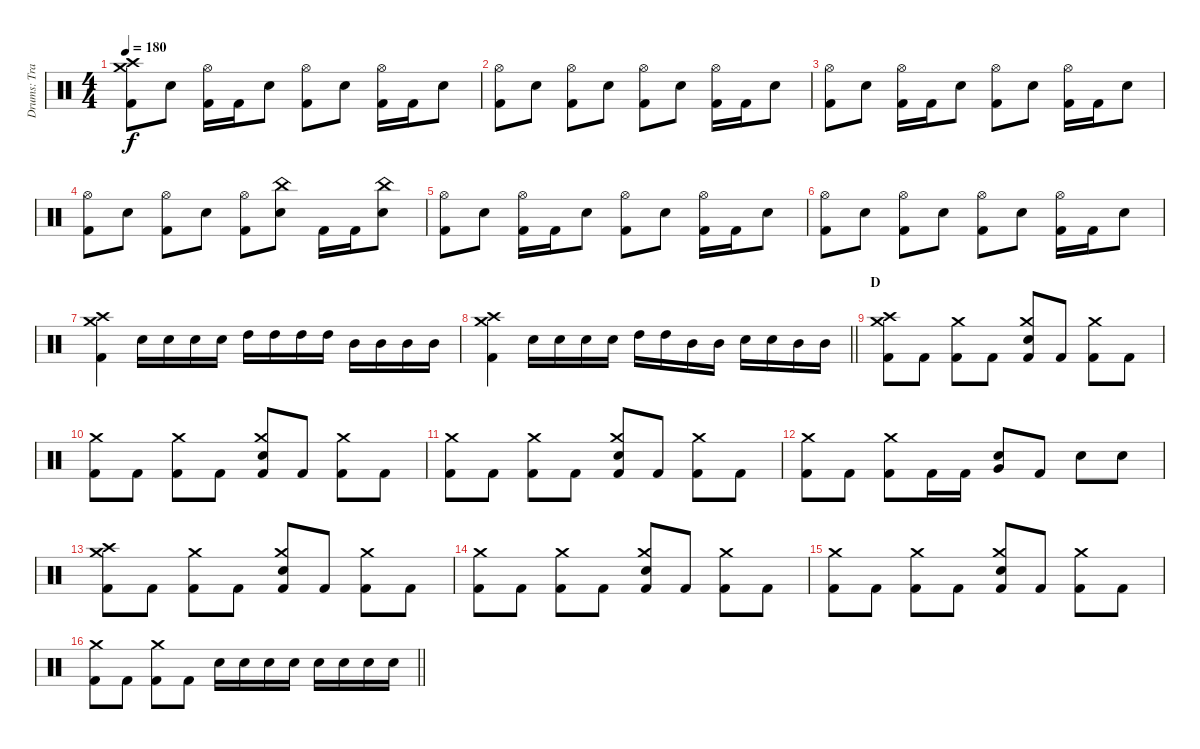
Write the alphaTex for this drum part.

\track ("Drums: Travis Clarke" "Drums: Tra") {instrument percussion}
\staff {score}
\articulation defaults
\ts (4 4)
\tempo 180
\clef neutral
\ks c
("Kick (hit) 2" "Crash high (hit)" "Crash medium (hit)").8{dy f} "Snare (hit) 2".8 ("Kick (hit) 2" "Hi-Hat (open)").16 "Kick (hit) 2".16 "Snare (hit) 2".8 ("Kick (hit) 2" "Hi-Hat (open)").8 "Snare (hit) 2".8 ("Kick (hit) 2" "Hi-Hat (open)").16 "Kick (hit) 2".16 "Snare (hit) 2".8 |
("Kick (hit) 2" "Hi-Hat (open)").8 "Snare (hit) 2".8 ("Kick (hit) 2" "Hi-Hat (open)").8 "Snare (hit) 2".8 ("Kick (hit) 2" "Hi-Hat (open)").8 "Snare (hit) 2".8 ("Kick (hit) 2" "Hi-Hat (open)").16 "Kick (hit) 2".16 "Snare (hit) 2".8 |
("Kick (hit) 2" "Hi-Hat (open)").8 "Snare (hit) 2".8 ("Kick (hit) 2" "Hi-Hat (open)").16 "Kick (hit) 2".16 "Snare (hit) 2".8 ("Kick (hit) 2" "Hi-Hat (open)").8 "Snare (hit) 2".8 ("Kick (hit) 2" "Hi-Hat (open)").16 "Kick (hit) 2".16 "Snare (hit) 2".8 |
("Kick (hit) 2" "Hi-Hat (open)").8 "Snare (hit) 2".8 ("Kick (hit) 2" "Hi-Hat (open)").8 "Snare (hit) 2".8 ("Kick (hit) 2" "Hi-Hat (open)").8 ("Snare (hit) 2" "China (hit)").8 "Kick (hit) 2".16 "Kick (hit) 2".16 ("Snare (hit) 2" "China (hit)").8 |
("Kick (hit) 2" "Hi-Hat (open)").8 "Snare (hit) 2".8 ("Kick (hit) 2" "Hi-Hat (open)").16 "Kick (hit) 2".16 "Snare (hit) 2".8 ("Kick (hit) 2" "Hi-Hat (open)").8 "Snare (hit) 2".8 ("Kick (hit) 2" "Hi-Hat (open)").16 "Kick (hit) 2".16 "Snare (hit) 2".8 |
("Kick (hit) 2" "Hi-Hat (open)").8 "Snare (hit) 2".8 ("Kick (hit) 2" "Hi-Hat (open)").8 "Snare (hit) 2".8 ("Kick (hit) 2" "Hi-Hat (open)").8 "Snare (hit) 2".8 ("Kick (hit) 2" "Hi-Hat (open)").16 "Kick (hit) 2".16 "Snare (hit) 2".8 |
("Kick (hit) 2" "Crash high (hit)" "Crash medium (hit)").4 "Snare (hit) 2".16 "Snare (hit) 2".16 "Snare (hit) 2".16 "Snare (hit) 2".16 "High Tom (hit)".16 "High Tom (hit)".16 "High Tom (hit)".16 "High Tom (hit)".16 "Mid Tom (hit)".16 "Mid Tom (hit)".16 "Mid Tom (hit)".16 "Mid Tom (hit)".16 |
\barLineRight lightlight
("Kick (hit) 2" "Crash high (hit)" "Crash medium (hit)").4 "Snare (hit) 2".16 "Snare (hit) 2".16 "Snare (hit) 2".16 "Snare (hit) 2".16 "High Tom (hit)".16 "High Tom (hit)".16 "Mid Tom (hit)".16 "Mid Tom (hit)".16 "Snare (hit) 2".16 "Snare (hit) 2".16 "Mid Tom (hit)".16 "Mid Tom (hit)".16 |
\section ("" "D")
("Kick (hit) 2" "Crash high (hit)" "Crash medium (hit)").8 "Kick (hit) 2".8 ("Kick (hit) 2" "Crash medium (hit)").8 "Kick (hit) 2".8 ("Kick (hit) 2" "Snare (hit) 2" "Crash medium (hit)").8 "Kick (hit) 2".8 ("Kick (hit) 2" "Crash medium (hit)").8 "Kick (hit) 2".8 |
("Kick (hit) 2" "Crash medium (hit)").8 "Kick (hit) 2".8 ("Kick (hit) 2" "Crash medium (hit)").8 "Kick (hit) 2".8 ("Kick (hit) 2" "Snare (hit) 2" "Crash medium (hit)").8 "Kick (hit) 2".8 ("Kick (hit) 2" "Crash medium (hit)").8 "Kick (hit) 2".8 |
("Kick (hit) 2" "Crash medium (hit)").8 "Kick (hit) 2".8 ("Kick (hit) 2" "Crash medium (hit)").8 "Kick (hit) 2".8 ("Kick (hit) 2" "Snare (hit) 2" "Crash medium (hit)").8 "Kick (hit) 2".8 ("Kick (hit) 2" "Crash medium (hit)").8 "Kick (hit) 2".8 |
("Kick (hit) 2" "Crash medium (hit)").8 "Kick (hit) 2".8 ("Kick (hit) 2" "Crash medium (hit)").8 "Kick (hit) 2".16 "Kick (hit) 2".16 ("Snare (hit) 2" "Very Low Tom (hit)").8 "Kick (hit) 2".8 "Snare (hit) 2".8 "Snare (hit) 2".8 |
("Kick (hit) 2" "Crash high (hit)" "Crash medium (hit)").8 "Kick (hit) 2".8 ("Kick (hit) 2" "Crash medium (hit)").8 "Kick (hit) 2".8 ("Kick (hit) 2" "Snare (hit) 2" "Crash medium (hit)").8 "Kick (hit) 2".8 ("Kick (hit) 2" "Crash medium (hit)").8 "Kick (hit) 2".8 |
("Kick (hit) 2" "Crash medium (hit)").8 "Kick (hit) 2".8 ("Kick (hit) 2" "Crash medium (hit)").8 "Kick (hit) 2".8 ("Kick (hit) 2" "Snare (hit) 2" "Crash medium (hit)").8 "Kick (hit) 2".8 ("Kick (hit) 2" "Crash medium (hit)").8 "Kick (hit) 2".8 |
("Kick (hit) 2" "Crash medium (hit)").8 "Kick (hit) 2".8 ("Kick (hit) 2" "Crash medium (hit)").8 "Kick (hit) 2".8 ("Kick (hit) 2" "Snare (hit) 2" "Crash medium (hit)").8 "Kick (hit) 2".8 ("Kick (hit) 2" "Crash medium (hit)").8 "Kick (hit) 2".8 |
\barLineRight lightlight
("Kick (hit) 2" "Crash medium (hit)").8 "Kick (hit) 2".8 ("Kick (hit) 2" "Crash medium (hit)").8 "Kick (hit) 2".8 "Snare (hit) 2".16 "Snare (hit) 2".16 "Snare (hit) 2".16 "Snare (hit) 2".16 "Snare (hit) 2".16 "Snare (hit) 2".16 "Snare (hit) 2".16 "Snare (hit) 2".16
